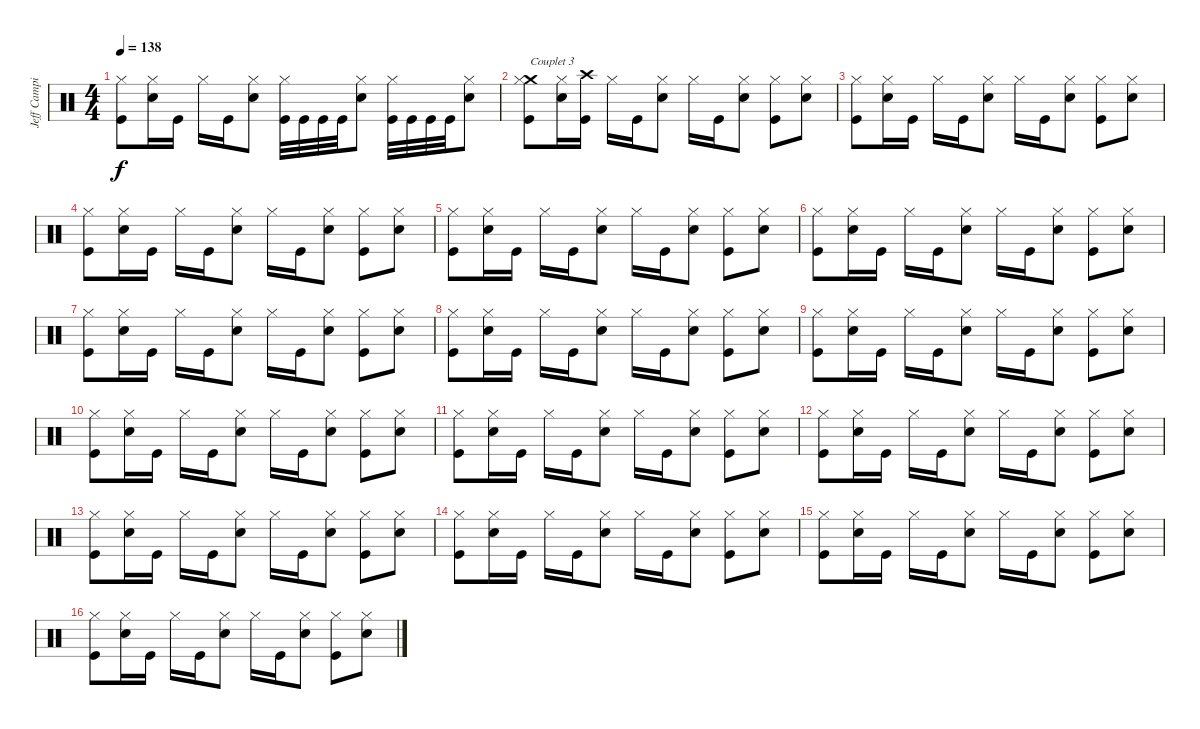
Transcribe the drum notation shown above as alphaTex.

\track ("Jeff Campitelli" "Jeff Campi") {instrument percussion}
\staff {score}
\articulation defaults
\ts (4 4)
\tempo 138
\clef neutral
\ks c
("Hi-Hat (closed)" "Kick (hit)").8{dy f} ("Electric Snare (hit)" "Hi-Hat (closed)").16 "Kick (hit)".16 "Hi-Hat (closed)".16 "Kick (hit)".16 ("Electric Snare (hit)" "Hi-Hat (closed)").8 ("Hi-Hat (closed)" "Kick (hit)").32 "Kick (hit)".32 "Kick (hit)".32 "Kick (hit)".32 ("Electric Snare (hit)" "Hi-Hat (closed)").8 ("Hi-Hat (closed)" "Kick (hit)").32 "Kick (hit)".32 "Kick (hit)".32 "Kick (hit)".32 ("Electric Snare (hit)" "Hi-Hat (closed)").8 |
("Crash medium (hit)" "Hi-Hat (closed)" "Kick (hit)").8{txt "Couplet 3"} ("Electric Snare (hit)" "Hi-Hat (closed)").16 ("Crash high (hit)" "Kick (hit)").16 "Hi-Hat (closed)".16 "Kick (hit)".16 ("Electric Snare (hit)" "Hi-Hat (closed)").8 "Hi-Hat (closed)".16 "Kick (hit)".16 ("Electric Snare (hit)" "Hi-Hat (closed)").8 ("Hi-Hat (closed)" "Kick (hit)").8 ("Electric Snare (hit)" "Hi-Hat (closed)").8 |
("Hi-Hat (closed)" "Kick (hit)").8 ("Electric Snare (hit)" "Hi-Hat (closed)").16 "Kick (hit)".16 "Hi-Hat (closed)".16 "Kick (hit)".16 ("Electric Snare (hit)" "Hi-Hat (closed)").8 "Hi-Hat (closed)".16 "Kick (hit)".16 ("Electric Snare (hit)" "Hi-Hat (closed)").8 ("Hi-Hat (closed)" "Kick (hit)").8 ("Electric Snare (hit)" "Hi-Hat (closed)").8 |
("Hi-Hat (closed)" "Kick (hit)").8 ("Electric Snare (hit)" "Hi-Hat (closed)").16 "Kick (hit)".16 "Hi-Hat (closed)".16 "Kick (hit)".16 ("Electric Snare (hit)" "Hi-Hat (closed)").8 "Hi-Hat (closed)".16 "Kick (hit)".16 ("Electric Snare (hit)" "Hi-Hat (closed)").8 ("Hi-Hat (closed)" "Kick (hit)").8 ("Electric Snare (hit)" "Hi-Hat (closed)").8 |
("Hi-Hat (closed)" "Kick (hit)").8 ("Electric Snare (hit)" "Hi-Hat (closed)").16 "Kick (hit)".16 "Hi-Hat (closed)".16 "Kick (hit)".16 ("Electric Snare (hit)" "Hi-Hat (closed)").8 "Hi-Hat (closed)".16 "Kick (hit)".16 ("Electric Snare (hit)" "Hi-Hat (closed)").8 ("Hi-Hat (closed)" "Kick (hit)").8 ("Electric Snare (hit)" "Hi-Hat (closed)").8 |
("Hi-Hat (closed)" "Kick (hit)").8 ("Electric Snare (hit)" "Hi-Hat (closed)").16 "Kick (hit)".16 "Hi-Hat (closed)".16 "Kick (hit)".16 ("Electric Snare (hit)" "Hi-Hat (closed)").8 "Hi-Hat (closed)".16 "Kick (hit)".16 ("Electric Snare (hit)" "Hi-Hat (closed)").8 ("Hi-Hat (closed)" "Kick (hit)").8 ("Electric Snare (hit)" "Hi-Hat (closed)").8 |
("Hi-Hat (closed)" "Kick (hit)").8 ("Electric Snare (hit)" "Hi-Hat (closed)").16 "Kick (hit)".16 "Hi-Hat (closed)".16 "Kick (hit)".16 ("Electric Snare (hit)" "Hi-Hat (closed)").8 "Hi-Hat (closed)".16 "Kick (hit)".16 ("Electric Snare (hit)" "Hi-Hat (closed)").8 ("Hi-Hat (closed)" "Kick (hit)").8 ("Electric Snare (hit)" "Hi-Hat (closed)").8 |
("Hi-Hat (closed)" "Kick (hit)").8 ("Electric Snare (hit)" "Hi-Hat (closed)").16 "Kick (hit)".16 "Hi-Hat (closed)".16 "Kick (hit)".16 ("Electric Snare (hit)" "Hi-Hat (closed)").8 "Hi-Hat (closed)".16 "Kick (hit)".16 ("Electric Snare (hit)" "Hi-Hat (closed)").8 ("Hi-Hat (closed)" "Kick (hit)").8 ("Electric Snare (hit)" "Hi-Hat (closed)").8 |
("Hi-Hat (closed)" "Kick (hit)").8 ("Electric Snare (hit)" "Hi-Hat (closed)").16 "Kick (hit)".16 "Hi-Hat (closed)".16 "Kick (hit)".16 ("Electric Snare (hit)" "Hi-Hat (closed)").8 "Hi-Hat (closed)".16 "Kick (hit)".16 ("Electric Snare (hit)" "Hi-Hat (closed)").8 ("Hi-Hat (closed)" "Kick (hit)").8 ("Electric Snare (hit)" "Hi-Hat (closed)").8 |
("Hi-Hat (closed)" "Kick (hit)").8 ("Electric Snare (hit)" "Hi-Hat (closed)").16 "Kick (hit)".16 "Hi-Hat (closed)".16 "Kick (hit)".16 ("Electric Snare (hit)" "Hi-Hat (closed)").8 "Hi-Hat (closed)".16 "Kick (hit)".16 ("Electric Snare (hit)" "Hi-Hat (closed)").8 ("Hi-Hat (closed)" "Kick (hit)").8 ("Electric Snare (hit)" "Hi-Hat (closed)").8 |
("Hi-Hat (closed)" "Kick (hit)").8 ("Electric Snare (hit)" "Hi-Hat (closed)").16 "Kick (hit)".16 "Hi-Hat (closed)".16 "Kick (hit)".16 ("Electric Snare (hit)" "Hi-Hat (closed)").8 "Hi-Hat (closed)".16 "Kick (hit)".16 ("Electric Snare (hit)" "Hi-Hat (closed)").8 ("Hi-Hat (closed)" "Kick (hit)").8 ("Electric Snare (hit)" "Hi-Hat (closed)").8 |
("Hi-Hat (closed)" "Kick (hit)").8 ("Electric Snare (hit)" "Hi-Hat (closed)").16 "Kick (hit)".16 "Hi-Hat (closed)".16 "Kick (hit)".16 ("Electric Snare (hit)" "Hi-Hat (closed)").8 "Hi-Hat (closed)".16 "Kick (hit)".16 ("Electric Snare (hit)" "Hi-Hat (closed)").8 ("Hi-Hat (closed)" "Kick (hit)").8 ("Electric Snare (hit)" "Hi-Hat (closed)").8 |
("Hi-Hat (closed)" "Kick (hit)").8 ("Electric Snare (hit)" "Hi-Hat (closed)").16 "Kick (hit)".16 "Hi-Hat (closed)".16 "Kick (hit)".16 ("Electric Snare (hit)" "Hi-Hat (closed)").8 "Hi-Hat (closed)".16 "Kick (hit)".16 ("Electric Snare (hit)" "Hi-Hat (closed)").8 ("Hi-Hat (closed)" "Kick (hit)").8 ("Electric Snare (hit)" "Hi-Hat (closed)").8 |
("Hi-Hat (closed)" "Kick (hit)").8 ("Electric Snare (hit)" "Hi-Hat (closed)").16 "Kick (hit)".16 "Hi-Hat (closed)".16 "Kick (hit)".16 ("Electric Snare (hit)" "Hi-Hat (closed)").8 "Hi-Hat (closed)".16 "Kick (hit)".16 ("Electric Snare (hit)" "Hi-Hat (closed)").8 ("Hi-Hat (closed)" "Kick (hit)").8 ("Electric Snare (hit)" "Hi-Hat (closed)").8 |
("Hi-Hat (closed)" "Kick (hit)").8 ("Electric Snare (hit)" "Hi-Hat (closed)").16 "Kick (hit)".16 "Hi-Hat (closed)".16 "Kick (hit)".16 ("Electric Snare (hit)" "Hi-Hat (closed)").8 "Hi-Hat (closed)".16 "Kick (hit)".16 ("Electric Snare (hit)" "Hi-Hat (closed)").8 ("Hi-Hat (closed)" "Kick (hit)").8 ("Electric Snare (hit)" "Hi-Hat (closed)").8 |
("Hi-Hat (closed)" "Kick (hit)").8 ("Electric Snare (hit)" "Hi-Hat (closed)").16 "Kick (hit)".16 "Hi-Hat (closed)".16 "Kick (hit)".16 ("Electric Snare (hit)" "Hi-Hat (closed)").8 "Hi-Hat (closed)".16 "Kick (hit)".16 ("Electric Snare (hit)" "Hi-Hat (closed)").8 ("Hi-Hat (closed)" "Kick (hit)").8 ("Electric Snare (hit)" "Hi-Hat (closed)").8
